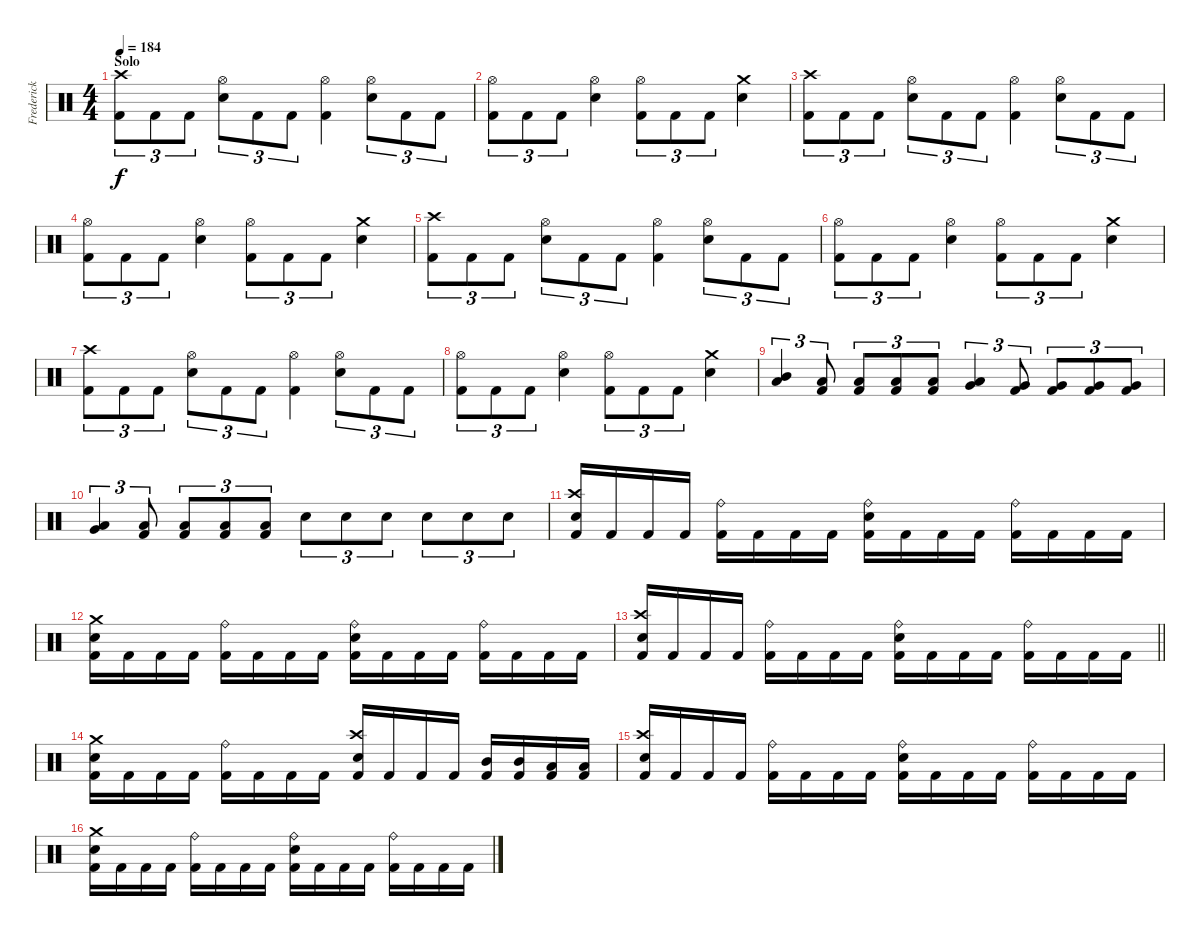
\track ("Frederick Ehmke" "Frederick ") {instrument percussion}
\staff {score}
\articulation defaults
\ts (4 4)
\section ("" "Solo")
\tempo 184
\clef neutral
\ks c
("Kick (hit) 2" "Crash high (hit)").8{tu (3 2) dy f} "Kick (hit) 2".8{tu (3 2)} "Kick (hit) 2".8{tu (3 2)} ("Electric Snare (hit)" "Hi-Hat (open)").8{tu (3 2)} "Kick (hit) 2".8{tu (3 2)} "Kick (hit) 2".8{tu (3 2)} ("Kick (hit) 2" "Hi-Hat (open)").4 ("Electric Snare (hit)" "Hi-Hat (open)").8{tu (3 2)} "Kick (hit) 2".8{tu (3 2)} "Kick (hit) 2".8{tu (3 2)} |
("Kick (hit) 2" "Hi-Hat (open)").8{tu (3 2)} "Kick (hit) 2".8{tu (3 2)} "Kick (hit) 2".8{tu (3 2)} ("Electric Snare (hit)" "Hi-Hat (open)").4 ("Kick (hit) 2" "Hi-Hat (open)").8{tu (3 2)} "Kick (hit) 2".8{tu (3 2)} "Kick (hit) 2".8{tu (3 2)} ("Electric Snare (hit)" "Crash medium (hit)").4 |
("Kick (hit) 2" "Crash high (hit)").8{tu (3 2)} "Kick (hit) 2".8{tu (3 2)} "Kick (hit) 2".8{tu (3 2)} ("Electric Snare (hit)" "Hi-Hat (open)").8{tu (3 2)} "Kick (hit) 2".8{tu (3 2)} "Kick (hit) 2".8{tu (3 2)} ("Kick (hit) 2" "Hi-Hat (open)").4 ("Electric Snare (hit)" "Hi-Hat (open)").8{tu (3 2)} "Kick (hit) 2".8{tu (3 2)} "Kick (hit) 2".8{tu (3 2)} |
("Kick (hit) 2" "Hi-Hat (open)").8{tu (3 2)} "Kick (hit) 2".8{tu (3 2)} "Kick (hit) 2".8{tu (3 2)} ("Electric Snare (hit)" "Hi-Hat (open)").4 ("Kick (hit) 2" "Hi-Hat (open)").8{tu (3 2)} "Kick (hit) 2".8{tu (3 2)} "Kick (hit) 2".8{tu (3 2)} ("Electric Snare (hit)" "Crash medium (hit)").4 |
("Kick (hit) 2" "Crash high (hit)").8{tu (3 2)} "Kick (hit) 2".8{tu (3 2)} "Kick (hit) 2".8{tu (3 2)} ("Electric Snare (hit)" "Hi-Hat (open)").8{tu (3 2)} "Kick (hit) 2".8{tu (3 2)} "Kick (hit) 2".8{tu (3 2)} ("Kick (hit) 2" "Hi-Hat (open)").4 ("Electric Snare (hit)" "Hi-Hat (open)").8{tu (3 2)} "Kick (hit) 2".8{tu (3 2)} "Kick (hit) 2".8{tu (3 2)} |
("Kick (hit) 2" "Hi-Hat (open)").8{tu (3 2)} "Kick (hit) 2".8{tu (3 2)} "Kick (hit) 2".8{tu (3 2)} ("Electric Snare (hit)" "Hi-Hat (open)").4 ("Kick (hit) 2" "Hi-Hat (open)").8{tu (3 2)} "Kick (hit) 2".8{tu (3 2)} "Kick (hit) 2".8{tu (3 2)} ("Electric Snare (hit)" "Crash medium (hit)").4 |
("Kick (hit) 2" "Crash high (hit)").8{tu (3 2)} "Kick (hit) 2".8{tu (3 2)} "Kick (hit) 2".8{tu (3 2)} ("Electric Snare (hit)" "Hi-Hat (open)").8{tu (3 2)} "Kick (hit) 2".8{tu (3 2)} "Kick (hit) 2".8{tu (3 2)} ("Kick (hit) 2" "Hi-Hat (open)").4 ("Electric Snare (hit)" "Hi-Hat (open)").8{tu (3 2)} "Kick (hit) 2".8{tu (3 2)} "Kick (hit) 2".8{tu (3 2)} |
("Kick (hit) 2" "Hi-Hat (open)").8{tu (3 2)} "Kick (hit) 2".8{tu (3 2)} "Kick (hit) 2".8{tu (3 2)} ("Electric Snare (hit)" "Hi-Hat (open)").4 ("Kick (hit) 2" "Hi-Hat (open)").8{tu (3 2)} "Kick (hit) 2".8{tu (3 2)} "Kick (hit) 2".8{tu (3 2)} ("Electric Snare (hit)" "Crash medium (hit)").4 |
("Low Tom (hit)" "Mid Tom (hit)").4{tu (3 2)} ("Kick (hit) 2" "Low Tom (hit)").8{tu (3 2)} ("Kick (hit) 2" "Low Tom (hit)").8{tu (3 2)} ("Kick (hit) 2" "Low Tom (hit)").8{tu (3 2)} ("Kick (hit) 2" "Low Tom (hit)").8{tu (3 2)} ("Very Low Tom (hit)" "Low Tom (hit)").4{tu (3 2)} ("Kick (hit) 2" "Very Low Tom (hit)").8{tu (3 2)} ("Kick (hit) 2" "Very Low Tom (hit)").8{tu (3 2)} ("Kick (hit) 2" "Very Low Tom (hit)").8{tu (3 2)} ("Kick (hit) 2" "Very Low Tom (hit)").8{tu (3 2)} |
("Low Floor Tom (hit)" "Very Low Tom (hit)").4{tu (3 2)} ("Kick (hit) 2" "Low Floor Tom (hit)").8{tu (3 2)} ("Kick (hit) 2" "Low Floor Tom (hit)").8{tu (3 2)} ("Kick (hit) 2" "Low Floor Tom (hit)").8{tu (3 2)} ("Kick (hit) 2" "Low Floor Tom (hit)").8{tu (3 2)} "Electric Snare (hit)".8{tu (3 2)} "Electric Snare (hit)".8{tu (3 2)} "Electric Snare (hit)".8{tu (3 2)} "Electric Snare (hit)".8{tu (3 2)} "Electric Snare (hit)".8{tu (3 2)} "Electric Snare (hit)".8{tu (3 2)} |
("Electric Snare (hit)" "Kick (hit) 2" "Crash high (hit)").16 "Kick (hit) 2".16 "Kick (hit) 2".16 "Kick (hit) 2".16 ("Kick (hit) 2" "Ride (bell)").16 "Kick (hit) 2".16 "Kick (hit) 2".16 "Kick (hit) 2".16 ("Electric Snare (hit)" "Kick (hit) 2" "Ride (bell)").16 "Kick (hit) 2".16 "Kick (hit) 2".16 "Kick (hit) 2".16 ("Kick (hit) 2" "Ride (bell)").16 "Kick (hit) 2".16 "Kick (hit) 2".16 "Kick (hit) 2".16 |
("Electric Snare (hit)" "Kick (hit) 2" "Crash medium (hit)").16 "Kick (hit) 2".16 "Kick (hit) 2".16 "Kick (hit) 2".16 ("Kick (hit) 2" "Ride (bell)").16 "Kick (hit) 2".16 "Kick (hit) 2".16 "Kick (hit) 2".16 ("Electric Snare (hit)" "Kick (hit) 2" "Ride (bell)").16 "Kick (hit) 2".16 "Kick (hit) 2".16 "Kick (hit) 2".16 ("Kick (hit) 2" "Ride (bell)").16 "Kick (hit) 2".16 "Kick (hit) 2".16 "Kick (hit) 2".16 |
\barLineRight lightlight
("Electric Snare (hit)" "Kick (hit) 2" "Crash high (hit)").16 "Kick (hit) 2".16 "Kick (hit) 2".16 "Kick (hit) 2".16 ("Kick (hit) 2" "Ride (bell)").16 "Kick (hit) 2".16 "Kick (hit) 2".16 "Kick (hit) 2".16 ("Electric Snare (hit)" "Kick (hit) 2" "Ride (bell)").16 "Kick (hit) 2".16 "Kick (hit) 2".16 "Kick (hit) 2".16 ("Kick (hit) 2" "Ride (bell)").16 "Kick (hit) 2".16 "Kick (hit) 2".16 "Kick (hit) 2".16 |
("Electric Snare (hit)" "Kick (hit) 2" "Crash medium (hit)").16 "Kick (hit) 2".16 "Kick (hit) 2".16 "Kick (hit) 2".16 ("Kick (hit) 2" "Ride (bell)").16 "Kick (hit) 2".16 "Kick (hit) 2".16 "Kick (hit) 2".16 ("Electric Snare (hit)" "Kick (hit) 2" "Crash high (hit)").16 "Kick (hit) 2".16 "Kick (hit) 2".16 "Kick (hit) 2".16 ("Kick (hit) 2" "Mid Tom (hit)").16 ("Kick (hit) 2" "Mid Tom (hit)").16 ("Kick (hit) 2" "Low Tom (hit)").16 ("Kick (hit) 2" "Low Tom (hit)").16 |
("Electric Snare (hit)" "Kick (hit) 2" "Crash high (hit)").16 "Kick (hit) 2".16 "Kick (hit) 2".16 "Kick (hit) 2".16 ("Kick (hit) 2" "Ride (bell)").16 "Kick (hit) 2".16 "Kick (hit) 2".16 "Kick (hit) 2".16 ("Electric Snare (hit)" "Kick (hit) 2" "Ride (bell)").16 "Kick (hit) 2".16 "Kick (hit) 2".16 "Kick (hit) 2".16 ("Kick (hit) 2" "Ride (bell)").16 "Kick (hit) 2".16 "Kick (hit) 2".16 "Kick (hit) 2".16 |
("Electric Snare (hit)" "Kick (hit) 2" "Crash medium (hit)").16 "Kick (hit) 2".16 "Kick (hit) 2".16 "Kick (hit) 2".16 ("Kick (hit) 2" "Ride (bell)").16 "Kick (hit) 2".16 "Kick (hit) 2".16 "Kick (hit) 2".16 ("Electric Snare (hit)" "Kick (hit) 2" "Ride (bell)").16 "Kick (hit) 2".16 "Kick (hit) 2".16 "Kick (hit) 2".16 ("Kick (hit) 2" "Ride (bell)").16 "Kick (hit) 2".16 "Kick (hit) 2".16 "Kick (hit) 2".16
